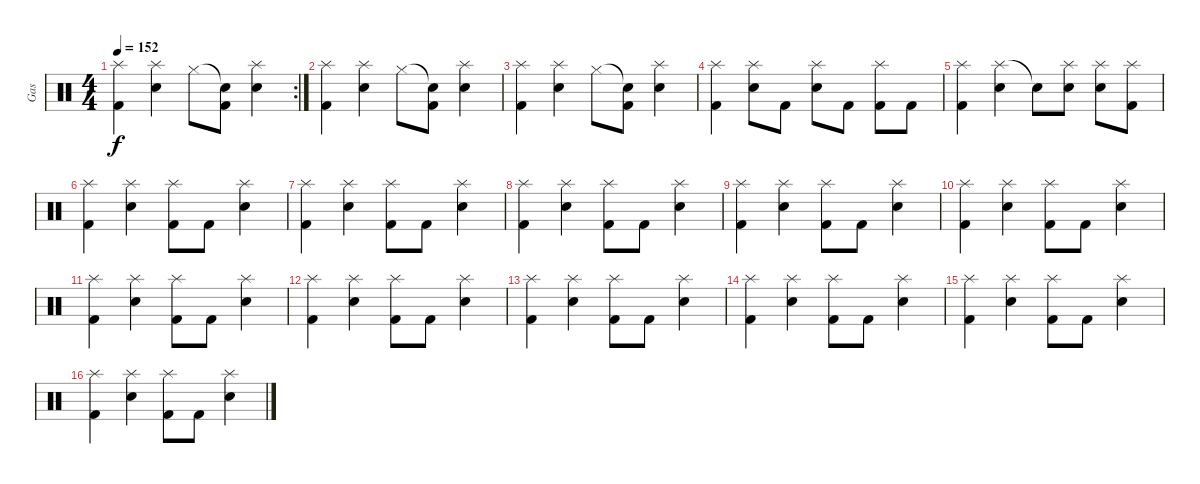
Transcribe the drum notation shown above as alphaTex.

\track ("Gas" "Gas") {instrument percussion}
\staff {score}
\articulation defaults
\rc 2
\ts (4 4)
\tempo 152
\clef neutral
\ks c
("Splash (hit)" "Kick (hit) 2").4{dy f} ("Splash (hit)" "Electric Snare (hit)").4 "Hi-Hat (closed)".8 ("Snare (hit)"{t} "Kick (hit) 2").8 ("Splash (hit)" "Electric Snare (hit)").4 |
("Splash (hit)" "Kick (hit) 2").4 ("Splash (hit)" "Electric Snare (hit)").4 "Hi-Hat (closed)".8 ("Snare (hit)"{t} "Kick (hit) 2").8 ("Splash (hit)" "Electric Snare (hit)").4 |
("Splash (hit)" "Kick (hit) 2").4 ("Splash (hit)" "Electric Snare (hit)").4 "Hi-Hat (closed)".8 ("Snare (hit)"{t} "Kick (hit) 2").8 ("Splash (hit)" "Electric Snare (hit)").4 |
("Splash (hit)" "Kick (hit) 2").4 ("Splash (hit)" "Electric Snare (hit)").8 "Kick (hit) 2".8 ("Splash (hit)" "Electric Snare (hit)").8 "Kick (hit) 2".8 ("Splash (hit)" "Kick (hit) 2").8 "Kick (hit) 2".8 |
("Splash (hit)" "Kick (hit) 2").4 ("Splash (hit)" "Electric Snare (hit)").4 "Electric Snare (hit)"{t}.8 ("Splash (hit)" "Electric Snare (hit)").8 ("Splash (hit)" "Electric Snare (hit)").8 ("Splash (hit)" "Kick (hit) 2").8 |
("Splash (hit)" "Kick (hit) 2").4 ("Splash (hit)" "Electric Snare (hit)").4 ("Splash (hit)" "Kick (hit) 2").8 "Kick (hit) 2".8 ("Splash (hit)" "Electric Snare (hit)").4 |
("Splash (hit)" "Kick (hit) 2").4 ("Splash (hit)" "Electric Snare (hit)").4 ("Splash (hit)" "Kick (hit) 2").8 "Kick (hit) 2".8 ("Splash (hit)" "Electric Snare (hit)").4 |
("Splash (hit)" "Kick (hit) 2").4 ("Splash (hit)" "Electric Snare (hit)").4 ("Splash (hit)" "Kick (hit) 2").8 "Kick (hit) 2".8 ("Splash (hit)" "Electric Snare (hit)").4 |
("Splash (hit)" "Kick (hit) 2").4 ("Splash (hit)" "Electric Snare (hit)").4 ("Splash (hit)" "Kick (hit) 2").8 "Kick (hit) 2".8 ("Splash (hit)" "Electric Snare (hit)").4 |
("Splash (hit)" "Kick (hit) 2").4 ("Splash (hit)" "Electric Snare (hit)").4 ("Splash (hit)" "Kick (hit) 2").8 "Kick (hit) 2".8 ("Splash (hit)" "Electric Snare (hit)").4 |
("Splash (hit)" "Kick (hit) 2").4 ("Splash (hit)" "Electric Snare (hit)").4 ("Splash (hit)" "Kick (hit) 2").8 "Kick (hit) 2".8 ("Splash (hit)" "Electric Snare (hit)").4 |
("Splash (hit)" "Kick (hit) 2").4 ("Splash (hit)" "Electric Snare (hit)").4 ("Splash (hit)" "Kick (hit) 2").8 "Kick (hit) 2".8 ("Splash (hit)" "Electric Snare (hit)").4 |
("Splash (hit)" "Kick (hit) 2").4 ("Splash (hit)" "Electric Snare (hit)").4 ("Splash (hit)" "Kick (hit) 2").8 "Kick (hit) 2".8 ("Splash (hit)" "Electric Snare (hit)").4 |
("Splash (hit)" "Kick (hit) 2").4 ("Splash (hit)" "Electric Snare (hit)").4 ("Splash (hit)" "Kick (hit) 2").8 "Kick (hit) 2".8 ("Splash (hit)" "Electric Snare (hit)").4 |
("Splash (hit)" "Kick (hit) 2").4 ("Splash (hit)" "Electric Snare (hit)").4 ("Splash (hit)" "Kick (hit) 2").8 "Kick (hit) 2".8 ("Splash (hit)" "Electric Snare (hit)").4 |
("Splash (hit)" "Kick (hit) 2").4 ("Splash (hit)" "Electric Snare (hit)").4 ("Splash (hit)" "Kick (hit) 2").8 "Kick (hit) 2".8 ("Splash (hit)" "Electric Snare (hit)").4
